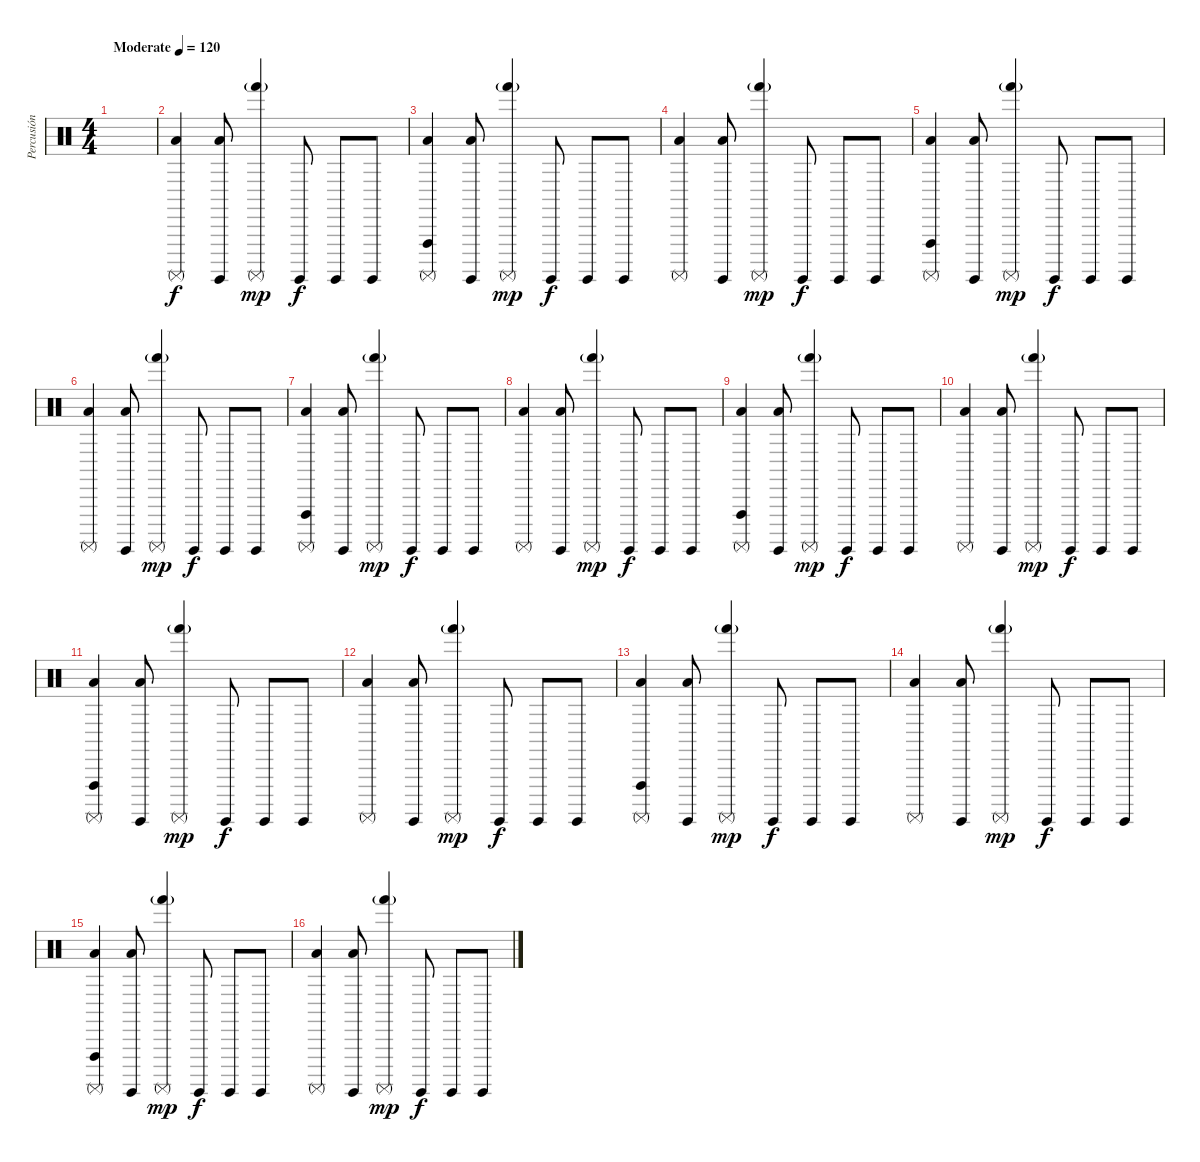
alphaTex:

\track ("Percusión" "Percusión") {instrument percussion}
\staff {score}
\articulation defaults
\ts (4 4)
\tempo (120 "Moderate")
\clef neutral
\ks c
|
("Low Floor Tom (hit)" "Surdo (mute)").4 ("Low Floor Tom (hit)" "Surdo (hit)").8 ("Surdo (mute)" "Hand (hit)"{g}).4{dy mp} "Surdo (hit)".8{dy f} "Surdo (hit)".8 "Surdo (hit)".8 |
("Vibraslap (hit)" "Low Floor Tom (hit)" "Surdo (mute)").4 ("Low Floor Tom (hit)" "Surdo (hit)").8 ("Surdo (mute)" "Hand (hit)"{g}).4{dy mp} "Surdo (hit)".8{dy f} "Surdo (hit)".8 "Surdo (hit)".8 |
("Low Floor Tom (hit)" "Surdo (mute)").4 ("Low Floor Tom (hit)" "Surdo (hit)").8 ("Surdo (mute)" "Hand (hit)"{g}).4{dy mp} "Surdo (hit)".8{dy f} "Surdo (hit)".8 "Surdo (hit)".8 |
("Vibraslap (hit)" "Low Floor Tom (hit)" "Surdo (mute)").4 ("Low Floor Tom (hit)" "Surdo (hit)").8 ("Surdo (mute)" "Hand (hit)"{g}).4{dy mp} "Surdo (hit)".8{dy f} "Surdo (hit)".8 "Surdo (hit)".8 |
("Low Floor Tom (hit)" "Surdo (mute)").4 ("Low Floor Tom (hit)" "Surdo (hit)").8 ("Surdo (mute)" "Hand (hit)"{g}).4{dy mp} "Surdo (hit)".8{dy f} "Surdo (hit)".8 "Surdo (hit)".8 |
("Vibraslap (hit)" "Low Floor Tom (hit)" "Surdo (mute)").4 ("Low Floor Tom (hit)" "Surdo (hit)").8 ("Surdo (mute)" "Hand (hit)"{g}).4{dy mp} "Surdo (hit)".8{dy f} "Surdo (hit)".8 "Surdo (hit)".8 |
("Low Floor Tom (hit)" "Surdo (mute)").4 ("Low Floor Tom (hit)" "Surdo (hit)").8 ("Surdo (mute)" "Hand (hit)"{g}).4{dy mp} "Surdo (hit)".8{dy f} "Surdo (hit)".8 "Surdo (hit)".8 |
("Vibraslap (hit)" "Low Floor Tom (hit)" "Surdo (mute)").4 ("Low Floor Tom (hit)" "Surdo (hit)").8 ("Surdo (mute)" "Hand (hit)"{g}).4{dy mp} "Surdo (hit)".8{dy f} "Surdo (hit)".8 "Surdo (hit)".8 |
("Low Floor Tom (hit)" "Surdo (mute)").4 ("Low Floor Tom (hit)" "Surdo (hit)").8 ("Surdo (mute)" "Hand (hit)"{g}).4{dy mp} "Surdo (hit)".8{dy f} "Surdo (hit)".8 "Surdo (hit)".8 |
("Vibraslap (hit)" "Low Floor Tom (hit)" "Surdo (mute)").4 ("Low Floor Tom (hit)" "Surdo (hit)").8 ("Surdo (mute)" "Hand (hit)"{g}).4{dy mp} "Surdo (hit)".8{dy f} "Surdo (hit)".8 "Surdo (hit)".8 |
("Low Floor Tom (hit)" "Surdo (mute)").4 ("Low Floor Tom (hit)" "Surdo (hit)").8 ("Surdo (mute)" "Hand (hit)"{g}).4{dy mp} "Surdo (hit)".8{dy f} "Surdo (hit)".8 "Surdo (hit)".8 |
("Vibraslap (hit)" "Low Floor Tom (hit)" "Surdo (mute)").4 ("Low Floor Tom (hit)" "Surdo (hit)").8 ("Surdo (mute)" "Hand (hit)"{g}).4{dy mp} "Surdo (hit)".8{dy f} "Surdo (hit)".8 "Surdo (hit)".8 |
("Low Floor Tom (hit)" "Surdo (mute)").4 ("Low Floor Tom (hit)" "Surdo (hit)").8 ("Surdo (mute)" "Hand (hit)"{g}).4{dy mp} "Surdo (hit)".8{dy f} "Surdo (hit)".8 "Surdo (hit)".8 |
("Vibraslap (hit)" "Low Floor Tom (hit)" "Surdo (mute)").4 ("Low Floor Tom (hit)" "Surdo (hit)").8 ("Surdo (mute)" "Hand (hit)"{g}).4{dy mp} "Surdo (hit)".8{dy f} "Surdo (hit)".8 "Surdo (hit)".8 |
("Low Floor Tom (hit)" "Surdo (mute)").4 ("Low Floor Tom (hit)" "Surdo (hit)").8 ("Surdo (mute)" "Hand (hit)"{g}).4{dy mp} "Surdo (hit)".8{dy f} "Surdo (hit)".8 "Surdo (hit)".8
